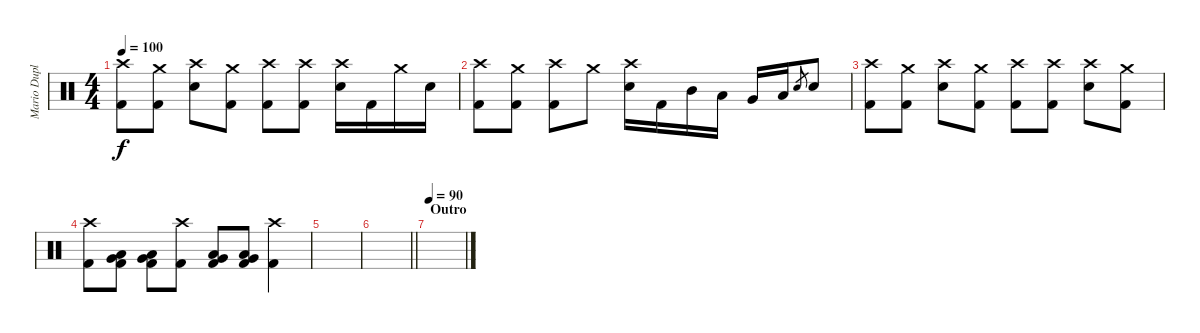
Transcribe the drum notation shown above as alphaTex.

\track ("Mario Duplantier - DRUMS" "Mario Dupl") {instrument percussion}
\staff {score}
\articulation defaults
\ts (4 4)
\tempo 100
\clef neutral
\ks c
("Crash high (hit)" "Kick (hit) 2").8{dy f} ("Crash medium (hit)" "Kick (hit) 2").8 ("Crash high (hit)" "Electric Snare (hit)").8 ("Crash medium (hit)" "Kick (hit) 2").8 ("Crash high (hit)" "Kick (hit) 2").8 ("Crash high (hit)" "Kick (hit) 2").8 ("Crash high (hit)" "Electric Snare (hit)").16 "Kick (hit) 2".16 "Crash medium (hit)".16 "Electric Snare (hit)".16 |
("Crash high (hit)" "Kick (hit) 2").8 ("Crash medium (hit)" "Kick (hit) 2").8 ("Crash high (hit)" "Kick (hit) 2").8 "Crash medium (hit)".8 ("Crash high (hit)" "Electric Snare (hit)").16 "Kick (hit) 2".16 "Mid Tom (hit)".16 "Low Tom (hit)".16 "Very Low Tom (hit)".16 "Low Floor Tom (hit)".16 "Electric Snare (hit)".8{gr} "Electric Snare (hit)".8 |
("Crash high (hit)" "Kick (hit) 2").8 ("Crash medium (hit)" "Kick (hit) 2").8 ("Crash high (hit)" "Electric Snare (hit)").8 ("Crash medium (hit)" "Kick (hit) 2").8 ("Crash high (hit)" "Kick (hit) 2").8 ("Crash high (hit)" "Kick (hit) 2").8 ("Crash high (hit)" "Electric Snare (hit)").8 ("Crash medium (hit)" "Kick (hit) 2").8 |
("Crash high (hit)" "Kick (hit) 2").8 ("Low Tom (hit)" "Very Low Tom (hit)" "Kick (hit) 2").8 ("Low Floor Tom (hit)" "Very Low Tom (hit)" "Kick (hit) 2").8 ("Crash high (hit)" "Kick (hit) 2").8 ("Low Tom (hit)" "Very Low Tom (hit)" "Kick (hit) 2").8 ("Low Floor Tom (hit)" "Very Low Tom (hit)" "Kick (hit) 2").8 ("Crash high (hit)" "Kick (hit) 2").4 |
|
\barLineRight lightlight
|
\section ("" "Outro")
\tempo 90
